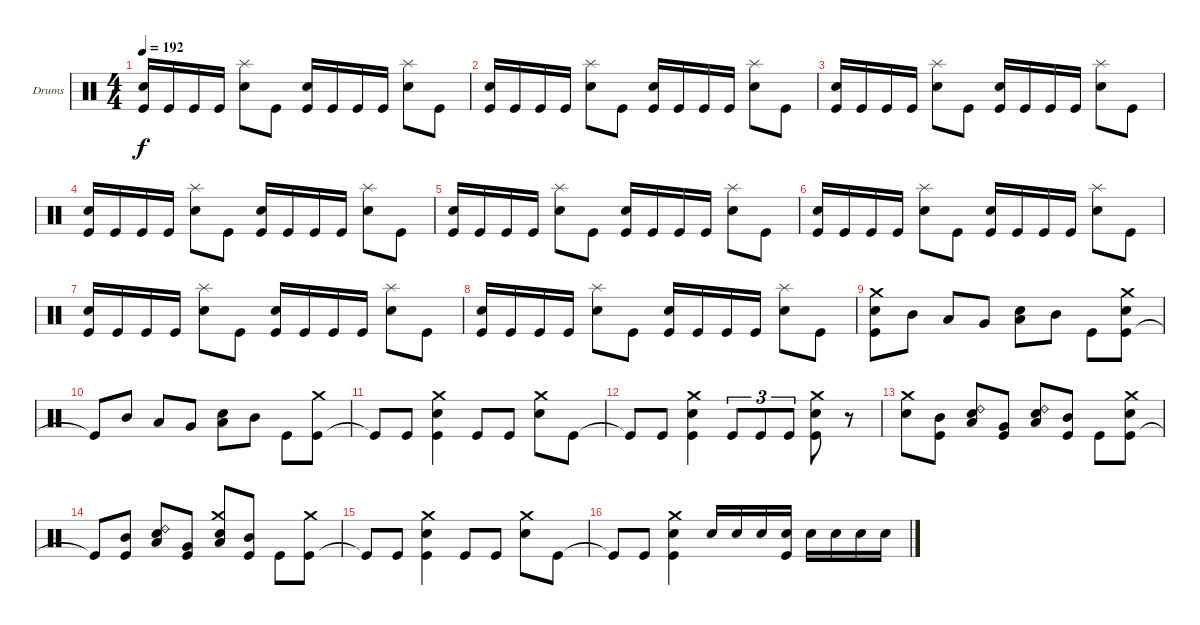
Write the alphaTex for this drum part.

\defaultSystemsLayout 4
\bracketExtendMode groupsimilarinstruments
\firstSystemTrackNameOrientation horizontal
\otherSystemsTrackNameOrientation horizontal
\track ("Drumkit" "Drums") {instrument percussion}
\staff {score}
\articulation defaults
\ts (4 4)
\tempo 192
\clef neutral
\ks c
("Snare (hit) 2" "Kick (hit)").16{dy f} "Kick (hit)".16 "Kick (hit)".16 "Kick (hit)".16 ("Snare (hit) 2" "Splash (hit)").8 "Kick (hit)".8 ("Snare (hit) 2" "Kick (hit)").16 "Kick (hit)".16 "Kick (hit)".16 "Kick (hit)".16 ("Snare (hit) 2" "Splash (hit)").8 "Kick (hit)".8 |
("Snare (hit) 2" "Kick (hit)").16 "Kick (hit)".16 "Kick (hit)".16 "Kick (hit)".16 ("Snare (hit) 2" "Splash (hit)").8 "Kick (hit)".8 ("Snare (hit) 2" "Kick (hit)").16 "Kick (hit)".16 "Kick (hit)".16 "Kick (hit)".16 ("Snare (hit) 2" "Splash (hit)").8 "Kick (hit)".8 |
("Snare (hit) 2" "Kick (hit)").16 "Kick (hit)".16 "Kick (hit)".16 "Kick (hit)".16 ("Snare (hit) 2" "Splash (hit)").8 "Kick (hit)".8 ("Snare (hit) 2" "Kick (hit)").16 "Kick (hit)".16 "Kick (hit)".16 "Kick (hit)".16 ("Snare (hit) 2" "Splash (hit)").8 "Kick (hit)".8 |
("Snare (hit) 2" "Kick (hit)").16 "Kick (hit)".16 "Kick (hit)".16 "Kick (hit)".16 ("Snare (hit) 2" "Splash (hit)").8 "Kick (hit)".8 ("Snare (hit) 2" "Kick (hit)").16 "Kick (hit)".16 "Kick (hit)".16 "Kick (hit)".16 ("Snare (hit) 2" "Splash (hit)").8 "Kick (hit)".8 |
("Snare (hit) 2" "Kick (hit)").16 "Kick (hit)".16 "Kick (hit)".16 "Kick (hit)".16 ("Snare (hit) 2" "Splash (hit)").8 "Kick (hit)".8 ("Snare (hit) 2" "Kick (hit)").16 "Kick (hit)".16 "Kick (hit)".16 "Kick (hit)".16 ("Snare (hit) 2" "Splash (hit)").8 "Kick (hit)".8 |
("Snare (hit) 2" "Kick (hit)").16 "Kick (hit)".16 "Kick (hit)".16 "Kick (hit)".16 ("Snare (hit) 2" "Splash (hit)").8 "Kick (hit)".8 ("Snare (hit) 2" "Kick (hit)").16 "Kick (hit)".16 "Kick (hit)".16 "Kick (hit)".16 ("Snare (hit) 2" "Splash (hit)").8 "Kick (hit)".8 |
("Snare (hit) 2" "Kick (hit)").16 "Kick (hit)".16 "Kick (hit)".16 "Kick (hit)".16 ("Snare (hit) 2" "Splash (hit)").8 "Kick (hit)".8 ("Snare (hit) 2" "Kick (hit)").16 "Kick (hit)".16 "Kick (hit)".16 "Kick (hit)".16 ("Snare (hit) 2" "Splash (hit)").8 "Kick (hit)".8 |
("Snare (hit) 2" "Kick (hit)").16 "Kick (hit)".16 "Kick (hit)".16 "Kick (hit)".16 ("Snare (hit) 2" "Splash (hit)").8 "Kick (hit)".8 ("Snare (hit) 2" "Kick (hit)").16 "Kick (hit)".16 "Kick (hit)".16 "Kick (hit)".16 ("Snare (hit) 2" "Splash (hit)").8 "Kick (hit)".8 |
("Kick (hit)" "Snare (hit) 2" "Crash medium (hit)").8 "Mid Tom (hit)".8 "Low Tom (hit)".8 "Very Low Tom (hit)".8 ("Snare (hit) 2" "Low Tom (hit)").8 "Mid Tom (hit)".8 "Kick (hit)".8 ("Kick (hit)" "Snare (hit) 2" "Crash medium (hit)").8 |
"Kick (hit)"{t}.8 "Mid Tom (hit)".8 "Low Tom (hit)".8 "Very Low Tom (hit)".8 ("Low Tom (hit)" "Snare (hit) 2").8 "Mid Tom (hit)".8 "Kick (hit)".8 ("Kick (hit)" "Crash medium (hit)").8 |
"Kick (hit)"{t}.8 "Kick (hit)".8 ("Kick (hit)" "Snare (hit) 2" "Crash medium (hit)").4 "Kick (hit)".8 "Kick (hit)".8 ("Snare (hit) 2" "Crash medium (hit)").8 "Kick (hit)".8 |
"Kick (hit)"{t}.8 "Kick (hit)".8 ("Kick (hit)" "Snare (hit) 2" "Crash medium (hit)").4 "Kick (hit)".8{tu (3 2)} "Kick (hit)".8{tu (3 2)} "Kick (hit)".8{tu (3 2)} ("Kick (hit)" "Snare (hit) 2" "Crash medium (hit)").8 r.8 |
("Snare (hit) 2" "Crash medium (hit)").8 ("Mid Tom (hit)" "Kick (hit)").8 ("Low Tom (hit)" "Snare (hit) 2" "Ride (bell) 2").8 ("Very Low Tom (hit)" "Kick (hit)").8 ("Low Tom (hit)" "Snare (hit) 2" "Ride (bell) 2").8 ("Mid Tom (hit)" "Kick (hit)").8 "Kick (hit)".8 ("Kick (hit)" "Snare (hit) 2" "Crash medium (hit)").8 |
"Kick (hit)"{t}.8 ("Kick (hit)" "Mid Tom (hit)").8 ("Snare (hit) 2" "Low Tom (hit)" "Ride (bell) 2").8 ("Very Low Tom (hit)" "Kick (hit)").8 ("Low Tom (hit)" "Snare (hit) 2" "Crash medium (hit)").8 ("Mid Tom (hit)" "Kick (hit)").8 "Kick (hit)".8 ("Kick (hit)" "Crash medium (hit)").8 |
"Kick (hit)"{t}.8 "Kick (hit)".8 ("Kick (hit)" "Snare (hit) 2" "Crash medium (hit)").4 "Kick (hit)".8 "Kick (hit)".8 ("Snare (hit) 2" "Crash medium (hit)").8 "Kick (hit)".8 |
"Kick (hit)"{t}.8 "Kick (hit)".8 ("Kick (hit)" "Snare (hit) 2" "Crash medium (hit)").4 "Snare (hit) 2".16 "Snare (hit) 2".16 "Snare (hit) 2".16 ("Snare (hit) 2" "Kick (hit)").16 "Snare (hit) 2".16 "Snare (hit) 2".16 "Snare (hit) 2".16 "Snare (hit) 2".16
